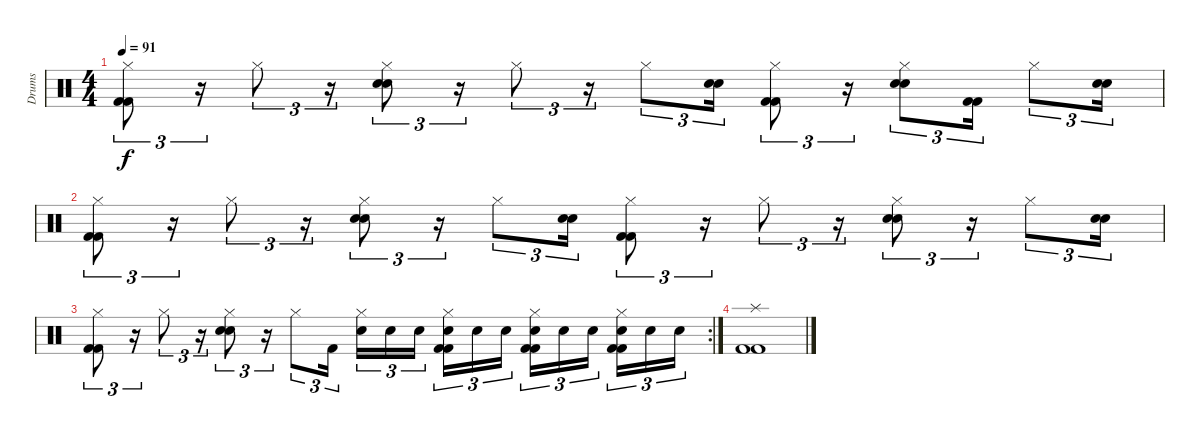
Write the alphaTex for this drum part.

\track ("Drums" "Drums") {instrument percussion}
\staff {score}
\articulation defaults
\ts (4 4)
\tempo 91
\clef neutral
\ks c
("Hi-Hat (closed)" "Kick (hit) 2" "Kick (hit) 2").8{tu (3 2) dy f} r.16{tu (3 2)} "Hi-Hat (closed)".8{tu (3 2)} r.16{tu (3 2)} ("Hi-Hat (closed)" "Electric Snare (hit)" "Electric Snare (hit)").8{tu (3 2)} r.16{tu (3 2)} "Hi-Hat (closed)".8{tu (3 2)} r.16{tu (3 2)} "Hi-Hat (closed)".8{tu (3 2)} ("Electric Snare (hit)" "Electric Snare (hit)").16{tu (3 2)} ("Hi-Hat (closed)" "Kick (hit) 2" "Kick (hit) 2").8{tu (3 2)} r.16{tu (3 2)} ("Hi-Hat (closed)" "Electric Snare (hit)" "Electric Snare (hit)").8{tu (3 2)} ("Kick (hit) 2" "Kick (hit) 2").16{tu (3 2)} "Hi-Hat (closed)".8{tu (3 2)} ("Electric Snare (hit)" "Electric Snare (hit)").16{tu (3 2)} |
("Hi-Hat (closed)" "Kick (hit) 2" "Kick (hit) 2").8{tu (3 2)} r.16{tu (3 2)} "Hi-Hat (closed)".8{tu (3 2)} r.16{tu (3 2)} ("Hi-Hat (closed)" "Electric Snare (hit)" "Electric Snare (hit)").8{tu (3 2)} r.16{tu (3 2)} "Hi-Hat (closed)".8{tu (3 2)} ("Electric Snare (hit)" "Electric Snare (hit)").16{tu (3 2)} ("Hi-Hat (closed)" "Kick (hit) 2" "Kick (hit) 2").8{tu (3 2)} r.16{tu (3 2)} "Hi-Hat (closed)".8{tu (3 2)} r.16{tu (3 2)} ("Hi-Hat (closed)" "Electric Snare (hit)" "Electric Snare (hit)").8{tu (3 2)} r.16{tu (3 2)} "Hi-Hat (closed)".8{tu (3 2)} ("Electric Snare (hit)" "Electric Snare (hit)").16{tu (3 2)} |
\rc 2
("Hi-Hat (closed)" "Kick (hit) 2" "Kick (hit) 2").8{tu (3 2)} r.16{tu (3 2)} "Hi-Hat (closed)".8{tu (3 2)} r.16{tu (3 2)} ("Hi-Hat (closed)" "Electric Snare (hit)" "Electric Snare (hit)").8{tu (3 2)} r.16{tu (3 2)} "Hi-Hat (closed)".8{tu (3 2)} "Kick (hit) 2".16{tu (3 2)} ("Hi-Hat (closed)" "Electric Snare (hit)").16{tu (3 2)} "Electric Snare (hit)".16{tu (3 2)} "Electric Snare (hit)".16{tu (3 2)} ("Hi-Hat (closed)" "Electric Snare (hit)" "Kick (hit) 2" "Kick (hit) 2").16{tu (3 2)} "Electric Snare (hit)".16{tu (3 2)} "Electric Snare (hit)".16{tu (3 2)} ("Hi-Hat (closed)" "Electric Snare (hit)" "Kick (hit) 2" "Kick (hit) 2").16{tu (3 2)} "Electric Snare (hit)".16{tu (3 2)} "Electric Snare (hit)".16{tu (3 2)} ("Hi-Hat (closed)" "Electric Snare (hit)" "Kick (hit) 2" "Kick (hit) 2").16{tu (3 2)} "Electric Snare (hit)".16{tu (3 2)} "Electric Snare (hit)".16{tu (3 2)} |
("Splash (hit)" "Kick (hit) 2" "Kick (hit) 2").1
